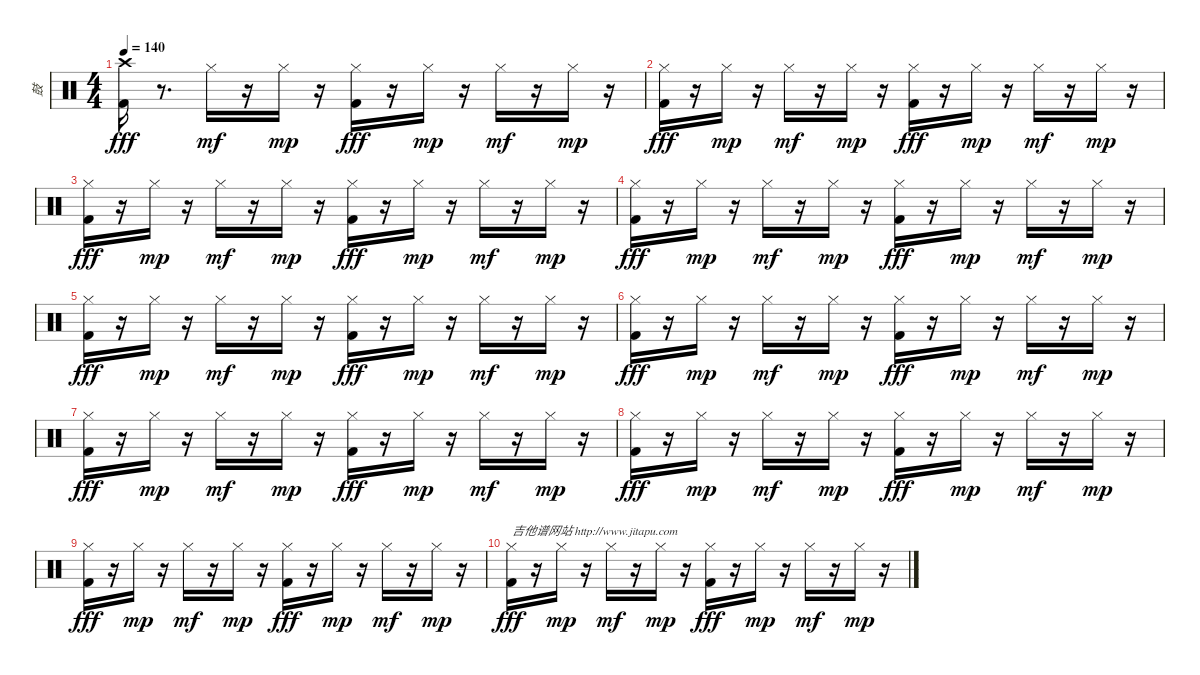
\track ("鼓" "鼓") {instrument percussion}
\staff {score}
\articulation defaults
\ts (4 4)
\tempo 140
\clef neutral
\ks c
("Crash high (hit)" "Kick (hit) 2").16{dy fff} r.8{d} "Hi-Hat (closed)".16{dy mf} r.16 "Hi-Hat (closed)".16{dy mp} r.16 ("Hi-Hat (closed)" "Kick (hit) 2").16{dy fff} r.16 "Hi-Hat (closed)".16{dy mp} r.16 "Hi-Hat (closed)".16{dy mf} r.16 "Hi-Hat (closed)".16{dy mp} r.16 |
("Hi-Hat (closed)" "Kick (hit) 2").16{dy fff} r.16 "Hi-Hat (closed)".16{dy mp} r.16 "Hi-Hat (closed)".16{dy mf} r.16 "Hi-Hat (closed)".16{dy mp} r.16 ("Hi-Hat (closed)" "Kick (hit) 2").16{dy fff} r.16 "Hi-Hat (closed)".16{dy mp} r.16 "Hi-Hat (closed)".16{dy mf} r.16 "Hi-Hat (closed)".16{dy mp} r.16 |
("Hi-Hat (closed)" "Kick (hit) 2").16{dy fff} r.16 "Hi-Hat (closed)".16{dy mp} r.16 "Hi-Hat (closed)".16{dy mf} r.16 "Hi-Hat (closed)".16{dy mp} r.16 ("Hi-Hat (closed)" "Kick (hit) 2").16{dy fff} r.16 "Hi-Hat (closed)".16{dy mp} r.16 "Hi-Hat (closed)".16{dy mf} r.16 "Hi-Hat (closed)".16{dy mp} r.16 |
("Hi-Hat (closed)" "Kick (hit) 2").16{dy fff} r.16 "Hi-Hat (closed)".16{dy mp} r.16 "Hi-Hat (closed)".16{dy mf} r.16 "Hi-Hat (closed)".16{dy mp} r.16 ("Hi-Hat (closed)" "Kick (hit) 2").16{dy fff} r.16 "Hi-Hat (closed)".16{dy mp} r.16 "Hi-Hat (closed)".16{dy mf} r.16 "Hi-Hat (closed)".16{dy mp} r.16 |
("Hi-Hat (closed)" "Kick (hit) 2").16{dy fff} r.16 "Hi-Hat (closed)".16{dy mp} r.16 "Hi-Hat (closed)".16{dy mf} r.16 "Hi-Hat (closed)".16{dy mp} r.16 ("Hi-Hat (closed)" "Kick (hit) 2").16{dy fff} r.16 "Hi-Hat (closed)".16{dy mp} r.16 "Hi-Hat (closed)".16{dy mf} r.16 "Hi-Hat (closed)".16{dy mp} r.16 |
("Hi-Hat (closed)" "Kick (hit) 2").16{dy fff} r.16 "Hi-Hat (closed)".16{dy mp} r.16 "Hi-Hat (closed)".16{dy mf} r.16 "Hi-Hat (closed)".16{dy mp} r.16 ("Hi-Hat (closed)" "Kick (hit) 2").16{dy fff} r.16 "Hi-Hat (closed)".16{dy mp} r.16 "Hi-Hat (closed)".16{dy mf} r.16 "Hi-Hat (closed)".16{dy mp} r.16 |
("Hi-Hat (closed)" "Kick (hit) 2").16{dy fff} r.16 "Hi-Hat (closed)".16{dy mp} r.16 "Hi-Hat (closed)".16{dy mf} r.16 "Hi-Hat (closed)".16{dy mp} r.16 ("Hi-Hat (closed)" "Kick (hit) 2").16{dy fff} r.16 "Hi-Hat (closed)".16{dy mp} r.16 "Hi-Hat (closed)".16{dy mf} r.16 "Hi-Hat (closed)".16{dy mp} r.16 |
("Hi-Hat (closed)" "Kick (hit) 2").16{dy fff} r.16 "Hi-Hat (closed)".16{dy mp} r.16 "Hi-Hat (closed)".16{dy mf} r.16 "Hi-Hat (closed)".16{dy mp} r.16 ("Hi-Hat (closed)" "Kick (hit) 2").16{dy fff} r.16 "Hi-Hat (closed)".16{dy mp} r.16 "Hi-Hat (closed)".16{dy mf} r.16 "Hi-Hat (closed)".16{dy mp} r.16 |
("Hi-Hat (closed)" "Kick (hit) 2").16{dy fff} r.16 "Hi-Hat (closed)".16{dy mp} r.16 "Hi-Hat (closed)".16{dy mf} r.16 "Hi-Hat (closed)".16{dy mp} r.16 ("Hi-Hat (closed)" "Kick (hit) 2").16{dy fff} r.16 "Hi-Hat (closed)".16{dy mp} r.16 "Hi-Hat (closed)".16{dy mf} r.16 "Hi-Hat (closed)".16{dy mp} r.16 |
("Hi-Hat (closed)" "Kick (hit) 2").16{txt "吉他谱网站 http://www.jitapu.com" dy fff} r.16 "Hi-Hat (closed)".16{dy mp} r.16 "Hi-Hat (closed)".16{dy mf} r.16 "Hi-Hat (closed)".16{dy mp} r.16 ("Hi-Hat (closed)" "Kick (hit) 2").16{dy fff} r.16 "Hi-Hat (closed)".16{dy mp} r.16 "Hi-Hat (closed)".16{dy mf} r.16 "Hi-Hat (closed)".16{dy mp} r.16
